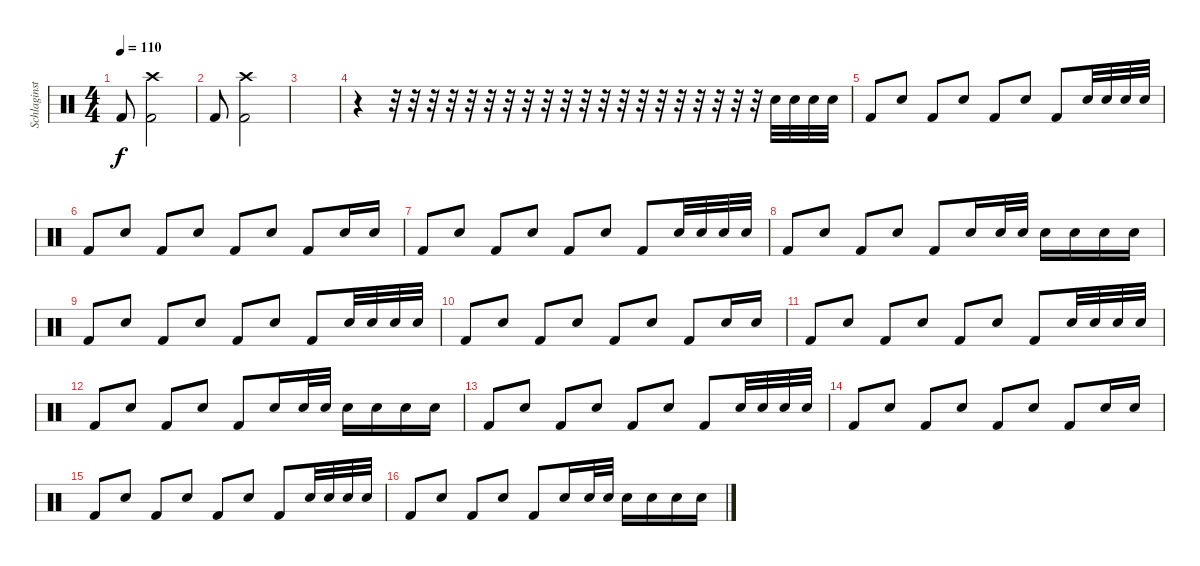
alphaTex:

\track ("Schlaginstrumente - Auswahl" "Schlaginst") {instrument percussion}
\staff {score}
\articulation defaults
\ts (4 4)
\tempo 110
\clef neutral
\ks c "Kick (hit) 2".8{dy f}
("Crash high (hit)" "Kick (hit) 2").2 |
"Kick (hit) 2".8 ("Crash high (hit)" "Kick (hit) 2").2 |
|
r.4 r.32 r.32 r.32 r.32 r.32 r.32 r.32 r.32 r.32 r.32 r.32 r.32 r.32 r.32 r.32 r.32 r.32 r.32 r.32 r.32 "Electric Snare (hit)".32 "Electric Snare (hit)".32 "Electric Snare (hit)".32 "Electric Snare (hit)".32 |
"Kick (hit) 2".8 "Electric Snare (hit)".8 "Kick (hit) 2".8 "Electric Snare (hit)".8 "Kick (hit) 2".8 "Electric Snare (hit)".8 "Kick (hit) 2".8 "Electric Snare (hit)".32 "Electric Snare (hit)".32 "Electric Snare (hit)".32 "Electric Snare (hit)".32 |
"Kick (hit) 2".8 "Electric Snare (hit)".8 "Kick (hit) 2".8 "Electric Snare (hit)".8 "Kick (hit) 2".8 "Electric Snare (hit)".8 "Kick (hit) 2".8 "Electric Snare (hit)".16 "Electric Snare (hit)".16 |
"Kick (hit) 2".8 "Electric Snare (hit)".8 "Kick (hit) 2".8 "Electric Snare (hit)".8 "Kick (hit) 2".8 "Electric Snare (hit)".8 "Kick (hit) 2".8 "Electric Snare (hit)".32 "Electric Snare (hit)".32 "Electric Snare (hit)".32 "Electric Snare (hit)".32 |
"Kick (hit) 2".8 "Electric Snare (hit)".8 "Kick (hit) 2".8 "Electric Snare (hit)".8 "Kick (hit) 2".8 "Electric Snare (hit)".16 "Electric Snare (hit)".32 "Electric Snare (hit)".32 "Electric Snare (hit)".16 "Electric Snare (hit)".16 "Electric Snare (hit)".16 "Electric Snare (hit)".16 |
"Kick (hit) 2".8 "Electric Snare (hit)".8 "Kick (hit) 2".8 "Electric Snare (hit)".8 "Kick (hit) 2".8 "Electric Snare (hit)".8 "Kick (hit) 2".8 "Electric Snare (hit)".32 "Electric Snare (hit)".32 "Electric Snare (hit)".32 "Electric Snare (hit)".32 |
"Kick (hit) 2".8 "Electric Snare (hit)".8 "Kick (hit) 2".8 "Electric Snare (hit)".8 "Kick (hit) 2".8 "Electric Snare (hit)".8 "Kick (hit) 2".8 "Electric Snare (hit)".16 "Electric Snare (hit)".16 |
"Kick (hit) 2".8 "Electric Snare (hit)".8 "Kick (hit) 2".8 "Electric Snare (hit)".8 "Kick (hit) 2".8 "Electric Snare (hit)".8 "Kick (hit) 2".8 "Electric Snare (hit)".32 "Electric Snare (hit)".32 "Electric Snare (hit)".32 "Electric Snare (hit)".32 |
"Kick (hit) 2".8 "Electric Snare (hit)".8 "Kick (hit) 2".8 "Electric Snare (hit)".8 "Kick (hit) 2".8 "Electric Snare (hit)".16 "Electric Snare (hit)".32 "Electric Snare (hit)".32 "Electric Snare (hit)".16 "Electric Snare (hit)".16 "Electric Snare (hit)".16 "Electric Snare (hit)".16 |
"Kick (hit) 2".8 "Electric Snare (hit)".8 "Kick (hit) 2".8 "Electric Snare (hit)".8 "Kick (hit) 2".8 "Electric Snare (hit)".8 "Kick (hit) 2".8 "Electric Snare (hit)".32 "Electric Snare (hit)".32 "Electric Snare (hit)".32 "Electric Snare (hit)".32 |
"Kick (hit) 2".8 "Electric Snare (hit)".8 "Kick (hit) 2".8 "Electric Snare (hit)".8 "Kick (hit) 2".8 "Electric Snare (hit)".8 "Kick (hit) 2".8 "Electric Snare (hit)".16 "Electric Snare (hit)".16 |
"Kick (hit) 2".8 "Electric Snare (hit)".8 "Kick (hit) 2".8 "Electric Snare (hit)".8 "Kick (hit) 2".8 "Electric Snare (hit)".8 "Kick (hit) 2".8 "Electric Snare (hit)".32 "Electric Snare (hit)".32 "Electric Snare (hit)".32 "Electric Snare (hit)".32 |
"Kick (hit) 2".8 "Electric Snare (hit)".8 "Kick (hit) 2".8 "Electric Snare (hit)".8 "Kick (hit) 2".8 "Electric Snare (hit)".16 "Electric Snare (hit)".32 "Electric Snare (hit)".32 "Electric Snare (hit)".16 "Electric Snare (hit)".16 "Electric Snare (hit)".16 "Electric Snare (hit)".16
